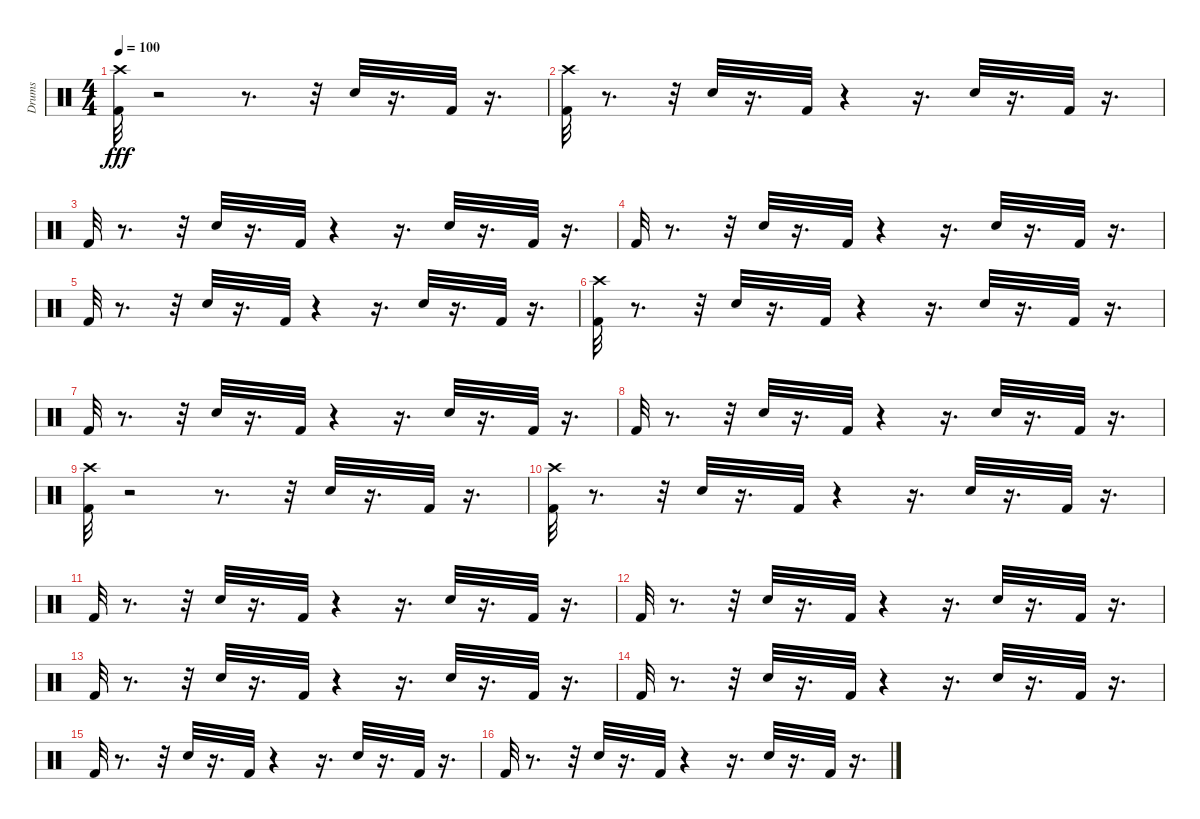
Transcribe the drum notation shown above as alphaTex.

\track ("Drums" "Drums") {instrument percussion}
\staff {score}
\articulation defaults
\ts (4 4)
\tempo 100
\clef neutral
\ks c
("Crash high (hit)" "Kick (hit) 2").32{dy fff} r.2 r.8{d} r.32 "Electric Snare (hit)".32 r.16{d} "Kick (hit) 2".32 r.16{d} |
("Crash high (hit)" "Kick (hit) 2").32 r.8{d} r.32 "Electric Snare (hit)".32 r.16{d} "Kick (hit) 2".32 r.4 r.16{d} "Electric Snare (hit)".32 r.16{d} "Kick (hit) 2".32 r.16{d} |
"Kick (hit) 2".32 r.8{d} r.32 "Electric Snare (hit)".32 r.16{d} "Kick (hit) 2".32 r.4 r.16{d} "Electric Snare (hit)".32 r.16{d} "Kick (hit) 2".32 r.16{d} |
"Kick (hit) 2".32 r.8{d} r.32 "Electric Snare (hit)".32 r.16{d} "Kick (hit) 2".32 r.4 r.16{d} "Electric Snare (hit)".32 r.16{d} "Kick (hit) 2".32 r.16{d} |
"Kick (hit) 2".32 r.8{d} r.32 "Electric Snare (hit)".32 r.16{d} "Kick (hit) 2".32 r.4 r.16{d} "Electric Snare (hit)".32 r.16{d} "Kick (hit) 2".32 r.16{d} |
("Crash high (hit)" "Kick (hit) 2").32 r.8{d} r.32 "Electric Snare (hit)".32 r.16{d} "Kick (hit) 2".32 r.4 r.16{d} "Electric Snare (hit)".32 r.16{d} "Kick (hit) 2".32 r.16{d} |
"Kick (hit) 2".32 r.8{d} r.32 "Electric Snare (hit)".32 r.16{d} "Kick (hit) 2".32 r.4 r.16{d} "Electric Snare (hit)".32 r.16{d} "Kick (hit) 2".32 r.16{d} |
"Kick (hit) 2".32 r.8{d} r.32 "Electric Snare (hit)".32 r.16{d} "Kick (hit) 2".32 r.4 r.16{d} "Electric Snare (hit)".32 r.16{d} "Kick (hit) 2".32 r.16{d} |
("Crash high (hit)" "Kick (hit) 2").32 r.2 r.8{d} r.32 "Electric Snare (hit)".32 r.16{d} "Kick (hit) 2".32 r.16{d} |
("Crash high (hit)" "Kick (hit) 2").32 r.8{d} r.32 "Electric Snare (hit)".32 r.16{d} "Kick (hit) 2".32 r.4 r.16{d} "Electric Snare (hit)".32 r.16{d} "Kick (hit) 2".32 r.16{d} |
"Kick (hit) 2".32 r.8{d} r.32 "Electric Snare (hit)".32 r.16{d} "Kick (hit) 2".32 r.4 r.16{d} "Electric Snare (hit)".32 r.16{d} "Kick (hit) 2".32 r.16{d} |
"Kick (hit) 2".32 r.8{d} r.32 "Electric Snare (hit)".32 r.16{d} "Kick (hit) 2".32 r.4 r.16{d} "Electric Snare (hit)".32 r.16{d} "Kick (hit) 2".32 r.16{d} |
"Kick (hit) 2".32 r.8{d} r.32 "Electric Snare (hit)".32 r.16{d} "Kick (hit) 2".32 r.4 r.16{d} "Electric Snare (hit)".32 r.16{d} "Kick (hit) 2".32 r.16{d} |
"Kick (hit) 2".32 r.8{d} r.32 "Electric Snare (hit)".32 r.16{d} "Kick (hit) 2".32 r.4 r.16{d} "Electric Snare (hit)".32 r.16{d} "Kick (hit) 2".32 r.16{d} |
"Kick (hit) 2".32 r.8{d} r.32 "Electric Snare (hit)".32 r.16{d} "Kick (hit) 2".32 r.4 r.16{d} "Electric Snare (hit)".32 r.16{d} "Kick (hit) 2".32 r.16{d} |
"Kick (hit) 2".32 r.8{d} r.32 "Electric Snare (hit)".32 r.16{d} "Kick (hit) 2".32 r.4 r.16{d} "Electric Snare (hit)".32 r.16{d} "Kick (hit) 2".32 r.16{d}
